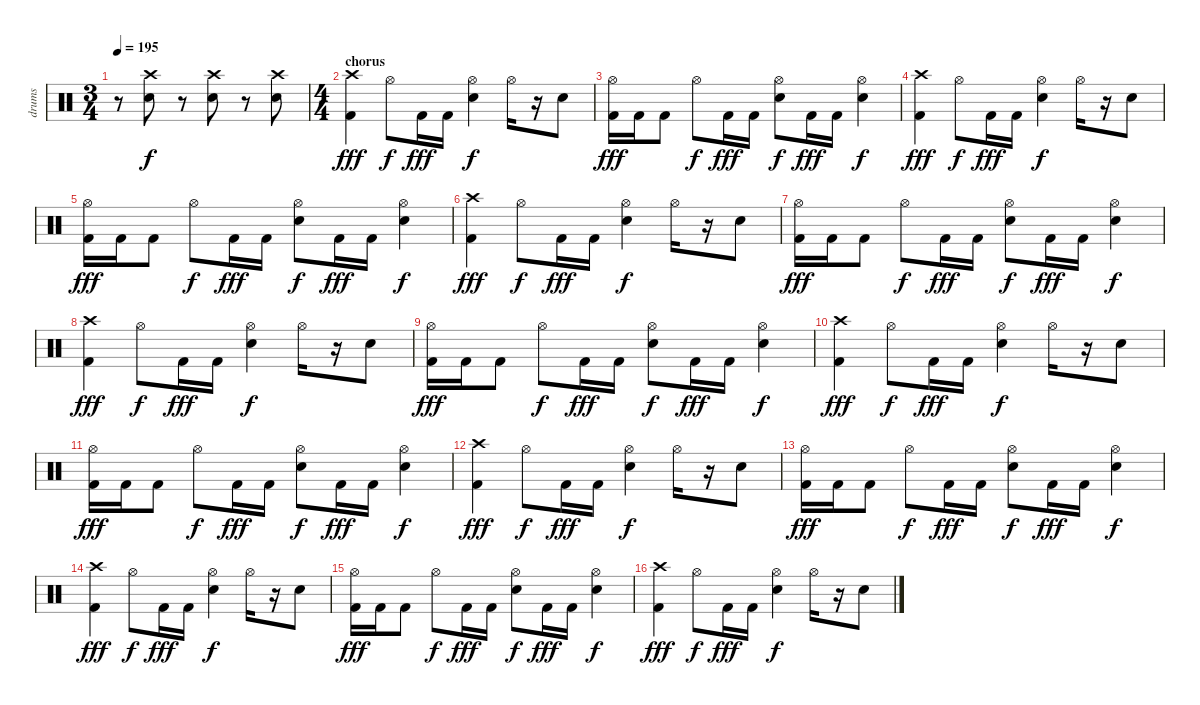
\track ("drums" "drums") {instrument percussion}
\staff {score}
\articulation defaults
\ts (3 4)
\tempo 195
\clef neutral
\ks c
r.8{dy f} ("Crash high (hit)" "Snare (hit) 2").8 r.8 ("Crash high (hit)" "Snare (hit) 2").8 r.8 ("Crash high (hit)" "Snare (hit) 2").8 |
\ts (4 4)
\section ("" "chorus")
("Crash high (hit)" "Kick (hit) 2").4{dy fff} "Hi-Hat (open)".8{dy f} "Kick (hit) 2".16{dy fff} "Kick (hit) 2".16 ("Hi-Hat (open)" "Snare (hit) 2").4{dy f} "Hi-Hat (open)".16 r.16 "Snare (hit) 2".8 |
("Hi-Hat (open)" "Kick (hit) 2").16{dy fff} "Kick (hit) 2".16 "Kick (hit) 2".8 "Hi-Hat (open)".8{dy f} "Kick (hit) 2".16{dy fff} "Kick (hit) 2".16 ("Hi-Hat (open)" "Snare (hit) 2").8{dy f} "Kick (hit) 2".16{dy fff} "Kick (hit) 2".16 ("Hi-Hat (open)" "Snare (hit) 2").4{dy f} |
("Crash high (hit)" "Kick (hit) 2").4{dy fff} "Hi-Hat (open)".8{dy f} "Kick (hit) 2".16{dy fff} "Kick (hit) 2".16 ("Hi-Hat (open)" "Snare (hit) 2").4{dy f} "Hi-Hat (open)".16 r.16 "Snare (hit) 2".8 |
("Hi-Hat (open)" "Kick (hit) 2").16{dy fff} "Kick (hit) 2".16 "Kick (hit) 2".8 "Hi-Hat (open)".8{dy f} "Kick (hit) 2".16{dy fff} "Kick (hit) 2".16 ("Hi-Hat (open)" "Snare (hit) 2").8{dy f} "Kick (hit) 2".16{dy fff} "Kick (hit) 2".16 ("Hi-Hat (open)" "Snare (hit) 2").4{dy f} |
("Crash high (hit)" "Kick (hit) 2").4{dy fff} "Hi-Hat (open)".8{dy f} "Kick (hit) 2".16{dy fff} "Kick (hit) 2".16 ("Hi-Hat (open)" "Snare (hit) 2").4{dy f} "Hi-Hat (open)".16 r.16 "Snare (hit) 2".8 |
("Hi-Hat (open)" "Kick (hit) 2").16{dy fff} "Kick (hit) 2".16 "Kick (hit) 2".8 "Hi-Hat (open)".8{dy f} "Kick (hit) 2".16{dy fff} "Kick (hit) 2".16 ("Hi-Hat (open)" "Snare (hit) 2").8{dy f} "Kick (hit) 2".16{dy fff} "Kick (hit) 2".16 ("Hi-Hat (open)" "Snare (hit) 2").4{dy f} |
("Crash high (hit)" "Kick (hit) 2").4{dy fff} "Hi-Hat (open)".8{dy f} "Kick (hit) 2".16{dy fff} "Kick (hit) 2".16 ("Hi-Hat (open)" "Snare (hit) 2").4{dy f} "Hi-Hat (open)".16 r.16 "Snare (hit) 2".8 |
("Hi-Hat (open)" "Kick (hit) 2").16{dy fff} "Kick (hit) 2".16 "Kick (hit) 2".8 "Hi-Hat (open)".8{dy f} "Kick (hit) 2".16{dy fff} "Kick (hit) 2".16 ("Hi-Hat (open)" "Snare (hit) 2").8{dy f} "Kick (hit) 2".16{dy fff} "Kick (hit) 2".16 ("Hi-Hat (open)" "Snare (hit) 2").4{dy f} |
("Crash high (hit)" "Kick (hit) 2").4{dy fff} "Hi-Hat (open)".8{dy f} "Kick (hit) 2".16{dy fff} "Kick (hit) 2".16 ("Hi-Hat (open)" "Snare (hit) 2").4{dy f} "Hi-Hat (open)".16 r.16 "Snare (hit) 2".8 |
("Hi-Hat (open)" "Kick (hit) 2").16{dy fff} "Kick (hit) 2".16 "Kick (hit) 2".8 "Hi-Hat (open)".8{dy f} "Kick (hit) 2".16{dy fff} "Kick (hit) 2".16 ("Hi-Hat (open)" "Snare (hit) 2").8{dy f} "Kick (hit) 2".16{dy fff} "Kick (hit) 2".16 ("Hi-Hat (open)" "Snare (hit) 2").4{dy f} |
("Crash high (hit)" "Kick (hit) 2").4{dy fff} "Hi-Hat (open)".8{dy f} "Kick (hit) 2".16{dy fff} "Kick (hit) 2".16 ("Hi-Hat (open)" "Snare (hit) 2").4{dy f} "Hi-Hat (open)".16 r.16 "Snare (hit) 2".8 |
("Hi-Hat (open)" "Kick (hit) 2").16{dy fff} "Kick (hit) 2".16 "Kick (hit) 2".8 "Hi-Hat (open)".8{dy f} "Kick (hit) 2".16{dy fff} "Kick (hit) 2".16 ("Hi-Hat (open)" "Snare (hit) 2").8{dy f} "Kick (hit) 2".16{dy fff} "Kick (hit) 2".16 ("Hi-Hat (open)" "Snare (hit) 2").4{dy f} |
("Crash high (hit)" "Kick (hit) 2").4{dy fff} "Hi-Hat (open)".8{dy f} "Kick (hit) 2".16{dy fff} "Kick (hit) 2".16 ("Hi-Hat (open)" "Snare (hit) 2").4{dy f} "Hi-Hat (open)".16 r.16 "Snare (hit) 2".8 |
("Hi-Hat (open)" "Kick (hit) 2").16{dy fff} "Kick (hit) 2".16 "Kick (hit) 2".8 "Hi-Hat (open)".8{dy f} "Kick (hit) 2".16{dy fff} "Kick (hit) 2".16 ("Hi-Hat (open)" "Snare (hit) 2").8{dy f} "Kick (hit) 2".16{dy fff} "Kick (hit) 2".16 ("Hi-Hat (open)" "Snare (hit) 2").4{dy f} |
("Crash high (hit)" "Kick (hit) 2").4{dy fff} "Hi-Hat (open)".8{dy f} "Kick (hit) 2".16{dy fff} "Kick (hit) 2".16 ("Hi-Hat (open)" "Snare (hit) 2").4{dy f} "Hi-Hat (open)".16 r.16 "Snare (hit) 2".8
